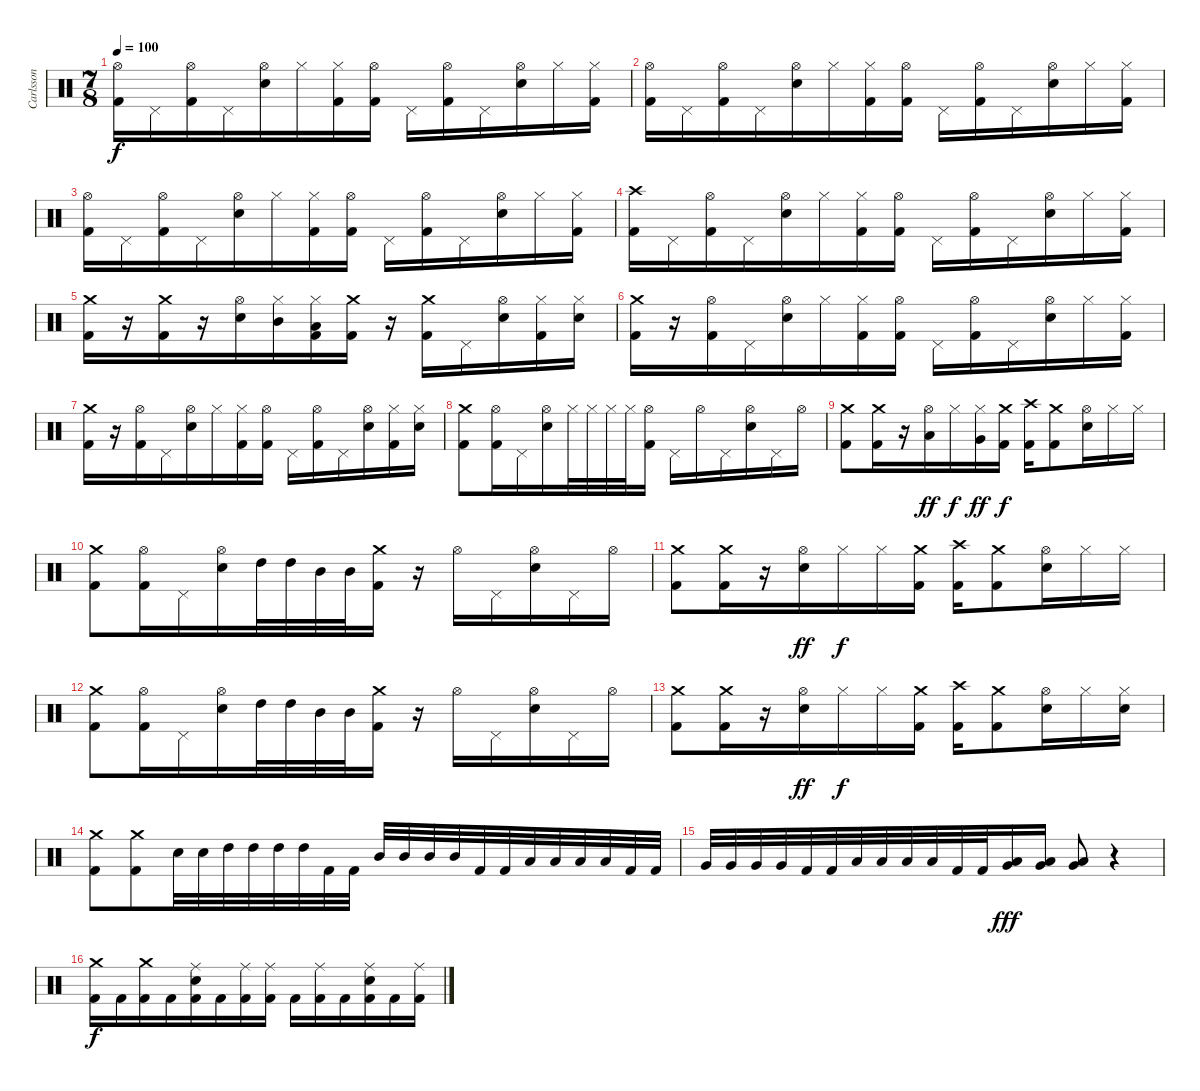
\track ("Carlsson" "Carlsson") {instrument percussion}
\staff {score}
\articulation defaults
\ts (7 8)
\tempo 100
\clef neutral
\ks c
("Hi-Hat (open)" "Kick (hit) 2").16{dy f} "Pedal Hi-Hat (hit)".16 ("Hi-Hat (open)" "Kick (hit) 2").16 "Pedal Hi-Hat (hit)".16 ("Hi-Hat (open)" "Electric Snare (hit)").16 "Hi-Hat (closed)".16 ("Hi-Hat (closed)" "Kick (hit) 2").16 ("Hi-Hat (open)" "Kick (hit) 2").16 "Pedal Hi-Hat (hit)".16 ("Hi-Hat (open)" "Kick (hit) 2").16 "Pedal Hi-Hat (hit)".16 ("Hi-Hat (open)" "Electric Snare (hit)").16 "Hi-Hat (closed)".16 ("Hi-Hat (closed)" "Kick (hit) 2").16 |
("Hi-Hat (open)" "Kick (hit) 2").16 "Pedal Hi-Hat (hit)".16 ("Hi-Hat (open)" "Kick (hit) 2").16 "Pedal Hi-Hat (hit)".16 ("Hi-Hat (open)" "Electric Snare (hit)").16 "Hi-Hat (closed)".16 ("Hi-Hat (closed)" "Kick (hit) 2").16 ("Hi-Hat (open)" "Kick (hit) 2").16 "Pedal Hi-Hat (hit)".16 ("Hi-Hat (open)" "Kick (hit) 2").16 "Pedal Hi-Hat (hit)".16 ("Hi-Hat (open)" "Electric Snare (hit)").16 "Hi-Hat (closed)".16 ("Hi-Hat (closed)" "Kick (hit) 2").16 |
("Hi-Hat (open)" "Kick (hit) 2").16 "Pedal Hi-Hat (hit)".16 ("Hi-Hat (open)" "Kick (hit) 2").16 "Pedal Hi-Hat (hit)".16 ("Hi-Hat (open)" "Electric Snare (hit)").16 "Hi-Hat (closed)".16 ("Hi-Hat (closed)" "Kick (hit) 2").16 ("Hi-Hat (open)" "Kick (hit) 2").16 "Pedal Hi-Hat (hit)".16 ("Hi-Hat (open)" "Kick (hit) 2").16 "Pedal Hi-Hat (hit)".16 ("Hi-Hat (open)" "Electric Snare (hit)").16 "Hi-Hat (closed)".16 ("Hi-Hat (closed)" "Kick (hit) 2").16 |
("Crash high (hit)" "Kick (hit) 2").16 "Pedal Hi-Hat (hit)".16 ("Hi-Hat (open)" "Kick (hit) 2").16 "Pedal Hi-Hat (hit)".16 ("Hi-Hat (open)" "Electric Snare (hit)").16 "Hi-Hat (closed)".16 ("Hi-Hat (closed)" "Kick (hit) 2").16 ("Hi-Hat (open)" "Kick (hit) 2").16 "Pedal Hi-Hat (hit)".16 ("Hi-Hat (open)" "Kick (hit) 2").16 "Pedal Hi-Hat (hit)".16 ("Hi-Hat (open)" "Electric Snare (hit)").16 "Hi-Hat (closed)".16 ("Hi-Hat (closed)" "Kick (hit) 2").16 |
("Crash medium (hit)" "Kick (hit) 2").16 r.16 ("Crash medium (hit)" "Kick (hit) 2").16 r.16 ("Hi-Hat (open)" "Electric Snare (hit)").16 ("Hi-Hat (closed)" "Mid Tom (hit)").16 ("Hi-Hat (closed)" "Low Tom (hit)" "Kick (hit) 2").16 ("Crash medium (hit)" "Kick (hit) 2").16 r.16 ("Crash medium (hit)" "Kick (hit) 2").16 "Pedal Hi-Hat (hit)".16 ("Hi-Hat (open)" "Electric Snare (hit)").16 ("Hi-Hat (closed)" "Kick (hit) 2").16 ("Hi-Hat (closed)" "Electric Snare (hit)").16 |
("Crash medium (hit)" "Kick (hit) 2").16 r.16 ("Hi-Hat (open)" "Kick (hit) 2").16 "Pedal Hi-Hat (hit)".16 ("Hi-Hat (open)" "Electric Snare (hit)").16 "Hi-Hat (closed)".16 ("Hi-Hat (closed)" "Kick (hit) 2").16 ("Hi-Hat (open)" "Kick (hit) 2").16 "Pedal Hi-Hat (hit)".16 ("Hi-Hat (open)" "Kick (hit) 2").16 "Pedal Hi-Hat (hit)".16 ("Hi-Hat (open)" "Electric Snare (hit)").16 "Hi-Hat (closed)".16 ("Hi-Hat (closed)" "Kick (hit) 2").16 |
("Crash medium (hit)" "Kick (hit) 2").16 r.16 ("Hi-Hat (open)" "Kick (hit) 2").16 "Pedal Hi-Hat (hit)".16 ("Hi-Hat (open)" "Electric Snare (hit)").16 "Hi-Hat (closed)".16 ("Hi-Hat (closed)" "Kick (hit) 2").16 ("Hi-Hat (open)" "Kick (hit) 2").16 "Pedal Hi-Hat (hit)".16 ("Hi-Hat (open)" "Kick (hit) 2").16 "Pedal Hi-Hat (hit)".16 ("Hi-Hat (open)" "Electric Snare (hit)").16 ("Hi-Hat (closed)" "Kick (hit) 2").16 ("Hi-Hat (closed)" "Electric Snare (hit)").16 |
("Crash medium (hit)" "Kick (hit) 2").8 ("Hi-Hat (open)" "Kick (hit) 2").16 "Pedal Hi-Hat (hit)".16 ("Hi-Hat (open)" "Electric Snare (hit)").16 "Hi-Hat (closed)".32 "Hi-Hat (closed)".32 "Hi-Hat (closed)".32 "Hi-Hat (closed)".32 ("Hi-Hat (open)" "Kick (hit) 2").16 "Pedal Hi-Hat (hit)".16 "Hi-Hat (open)".16 "Pedal Hi-Hat (hit)".16 ("Hi-Hat (open)" "Electric Snare (hit)").16 "Pedal Hi-Hat (hit)".16 "Hi-Hat (open)".16 |
("Crash medium (hit)" "Kick (hit) 2").8 ("Crash medium (hit)" "Kick (hit) 2").16 r.16 ("Hi-Hat (open)" "Low Tom (hit)").16{dy ff} "Hi-Hat (closed)".16{dy f} ("Hi-Hat (closed)" "Very Low Tom (hit)").16{dy ff} ("Crash medium (hit)" "Kick (hit) 2").16{dy f} ("Crash high (hit)" "Kick (hit) 2").16 ("Crash medium (hit)" "Kick (hit) 2").8 ("Hi-Hat (open)" "Electric Snare (hit)").16 "Hi-Hat (closed)".16 "Hi-Hat (closed)".16 |
("Crash medium (hit)" "Kick (hit) 2").8 ("Hi-Hat (open)" "Kick (hit) 2").16 "Pedal Hi-Hat (hit)".16 ("Hi-Hat (open)" "Electric Snare (hit)").16 "High Tom (hit)".32 "High Tom (hit)".32 "Mid Tom (hit)".32 "Mid Tom (hit)".32 ("Crash medium (hit)" "Kick (hit) 2").16 r.16 "Hi-Hat (open)".16 "Pedal Hi-Hat (hit)".16 ("Hi-Hat (open)" "Electric Snare (hit)").16 "Pedal Hi-Hat (hit)".16 "Hi-Hat (open)".16 |
("Crash medium (hit)" "Kick (hit) 2").8 ("Crash medium (hit)" "Kick (hit) 2").16 r.16 ("Hi-Hat (open)" "Electric Snare (hit)").16{dy ff} "Hi-Hat (closed)".16{dy f} "Hi-Hat (closed)".16 ("Crash medium (hit)" "Kick (hit) 2").16 ("Crash high (hit)" "Kick (hit) 2").16 ("Crash medium (hit)" "Kick (hit) 2").8 ("Hi-Hat (open)" "Electric Snare (hit)").16 "Hi-Hat (closed)".16 "Hi-Hat (closed)".16 |
("Crash medium (hit)" "Kick (hit) 2").8 ("Hi-Hat (open)" "Kick (hit) 2").16 "Pedal Hi-Hat (hit)".16 ("Hi-Hat (open)" "Electric Snare (hit)").16 "High Tom (hit)".32 "High Tom (hit)".32 "Mid Tom (hit)".32 "Mid Tom (hit)".32 ("Crash medium (hit)" "Kick (hit) 2").16 r.16 "Hi-Hat (open)".16 "Pedal Hi-Hat (hit)".16 ("Hi-Hat (open)" "Electric Snare (hit)").16 "Pedal Hi-Hat (hit)".16 "Hi-Hat (open)".16 |
("Crash medium (hit)" "Kick (hit) 2").8 ("Crash medium (hit)" "Kick (hit) 2").16 r.16 ("Hi-Hat (open)" "Electric Snare (hit)").16{dy ff} "Hi-Hat (closed)".16{dy f} "Hi-Hat (closed)".16 ("Crash medium (hit)" "Kick (hit) 2").16 ("Crash high (hit)" "Kick (hit) 2").16 ("Crash medium (hit)" "Kick (hit) 2").8 ("Hi-Hat (open)" "Electric Snare (hit)").16 "Hi-Hat (closed)".16 ("Hi-Hat (closed)" "Electric Snare (hit)").16 |
("Crash medium (hit)" "Kick (hit) 2").8 ("Crash medium (hit)" "Kick (hit) 2").8 "Electric Snare (hit)".32 "Electric Snare (hit)".32 "High Tom (hit)".32 "High Tom (hit)".32 "High Tom (hit)".32 "High Tom (hit)".32 "Kick (hit) 2".32 "Kick (hit) 2".32 "Mid Tom (hit)".32 "Mid Tom (hit)".32 "Mid Tom (hit)".32 "Mid Tom (hit)".32 "Kick (hit) 2".32 "Kick (hit) 2".32 "Low Tom (hit)".32 "Low Tom (hit)".32 "Low Tom (hit)".32 "Low Tom (hit)".32 "Kick (hit) 2".32 "Kick (hit) 2".32 |
"Very Low Tom (hit)".32 "Very Low Tom (hit)".32 "Very Low Tom (hit)".32 "Very Low Tom (hit)".32 "Kick (hit) 2".32 "Kick (hit) 2".32 "Low Floor Tom (hit)".32 "Low Floor Tom (hit)".32 "Low Floor Tom (hit)".32 "Low Floor Tom (hit)".32 "Kick (hit) 2".32 "Kick (hit) 2".32 ("Very Low Tom (hit)" "Low Tom (hit)").16{dy fff} ("Very Low Tom (hit)" "Low Tom (hit)").16 ("Very Low Tom (hit)" "Low Tom (hit)").8 r.4 |
("Crash medium (hit)" "Kick (hit) 2").16{dy f} "Kick (hit) 2".16 ("Crash medium (hit)" "Kick (hit) 2").16 "Kick (hit) 2".16 ("Ride (middle)" "Electric Snare (hit)" "Kick (hit) 2").16 "Kick (hit) 2".16 ("Ride (middle)" "Kick (hit) 2").16 ("Ride (middle)" "Kick (hit) 2").16 "Kick (hit) 2".16 ("Ride (middle)" "Kick (hit) 2").16 "Kick (hit) 2".16 ("Ride (middle)" "Electric Snare (hit)" "Kick (hit) 2").16 "Kick (hit) 2".16 ("Ride (middle)" "Kick (hit) 2").16
